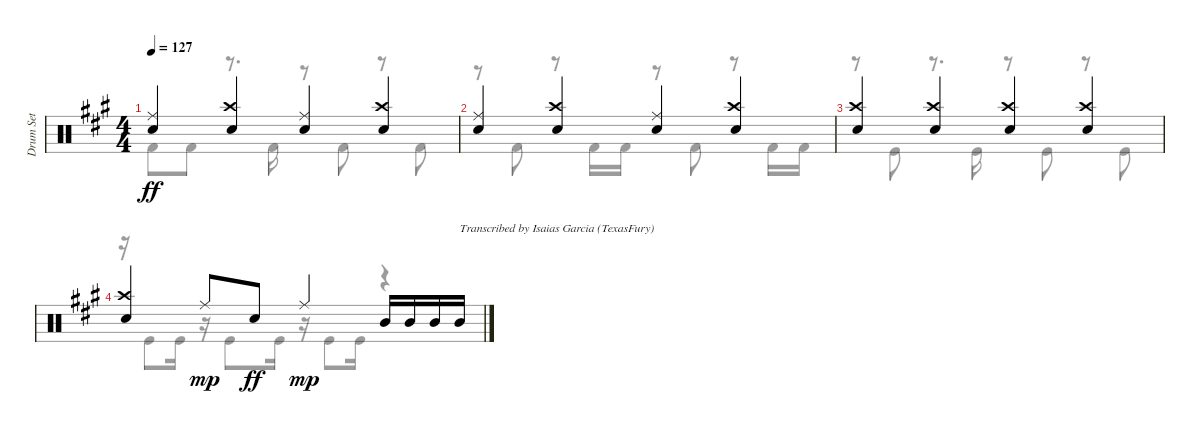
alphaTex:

\track ("Drum Set" "Drum Set") {instrument percussion}
\staff {score}
\articulation defaults
\voice
\ts (4 4)
\tempo 127
\clef neutral
\ks a
("Ride (middle)" "Electric Snare (hit)").4{dy ff} ("Crash high (hit)" "Electric Snare (hit)").4 ("Ride (middle)" "Electric Snare (hit)").4 ("Crash high (hit)" "Electric Snare (hit)").4 |
("Ride (middle)" "Electric Snare (hit)").4{volume 0} ("Crash high (hit)" "Electric Snare (hit)").4 ("Ride (middle)" "Electric Snare (hit)").4 ("Crash high (hit)" "Electric Snare (hit)").4 |
("Crash high (hit)" "Electric Snare (hit)").4 ("Crash high (hit)" "Electric Snare (hit)").4 ("Crash high (hit)" "Electric Snare (hit)").4 ("Crash high (hit)" "Electric Snare (hit)").4 |
("Crash high (hit)" "Electric Snare (hit)").4 "Ride (middle)".8{dy mp} "Electric Snare (hit)".8{dy ff} "Ride (middle)".4{dy mp} "Mid Tom (hit)".16 "Mid Tom (hit)".16 "Mid Tom (hit)".16 "Mid Tom (hit)".16{txt "Transcribed by Isaias Garcia (TexasFury)"}
\voice
\clef neutral
\ottava regular
\simile none
\ks a "Kick (hit) 2".8{dy ff} "Kick (hit) 2".8
r.8{d} "Kick (hit) 2".16 r.8 "Kick (hit) 2".8 r.8 "Kick (hit) 2".8 |
r.8 "Kick (hit) 2".8 r.8 "Kick (hit) 2".16 "Kick (hit) 2".16 r.8 "Kick (hit) 2".8 r.8 "Kick (hit) 2".16 "Kick (hit) 2".16 |
r.8 "Kick (hit)".8 r.8{d} "Kick (hit)".16 r.8 "Kick (hit)".8 r.8 "Kick (hit)".8 |
r.16 "Kick (hit)".8 "Kick (hit)".16 r.16 "Kick (hit)".8 "Kick (hit)".16 r.16 "Kick (hit)".8 "Kick (hit)".16 r.4
